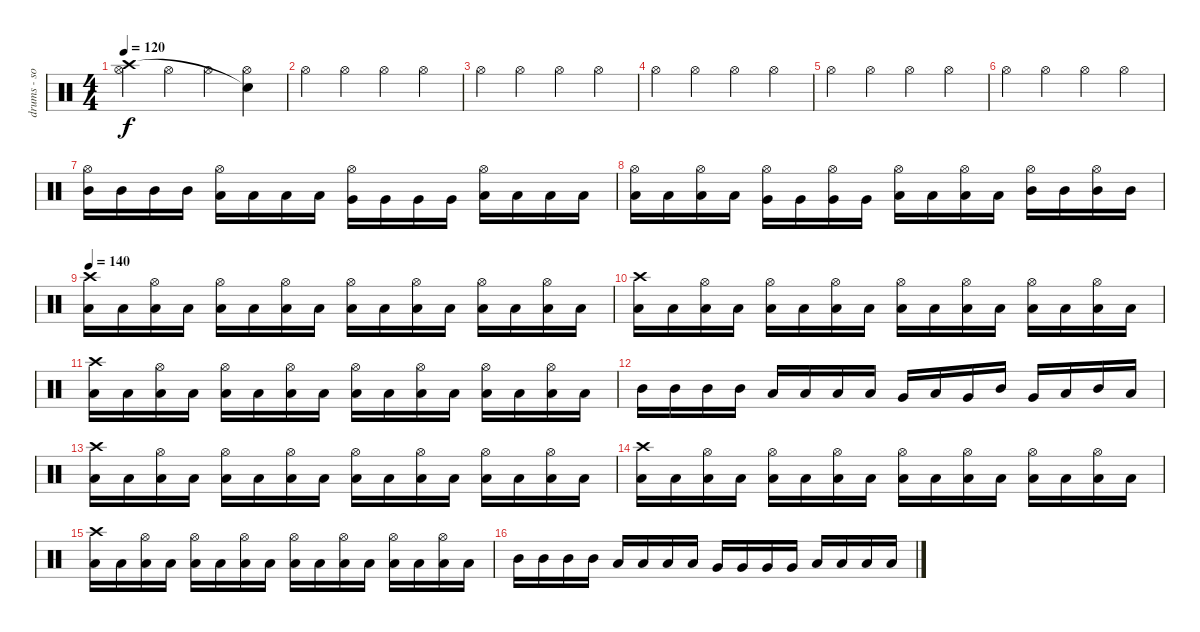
\track ("drums - someone maybe miki" "drums - so") {instrument percussion}
\staff {score}
\articulation defaults
\ts (4 4)
\tempo 120
\clef neutral
\ks c
("Hi-Hat (open)" "Crash high (hit)").4{dy f} "Hi-Hat (open)".4 "Hi-Hat (open)".4 ("Hi-Hat (open)" "Snare (hit)"{t}).4 |
"Hi-Hat (open)".4 "Hi-Hat (open)".4 "Hi-Hat (open)".4 "Hi-Hat (open)".4 |
"Hi-Hat (open)".4 "Hi-Hat (open)".4 "Hi-Hat (open)".4 "Hi-Hat (open)".4 |
"Hi-Hat (open)".4 "Hi-Hat (open)".4 "Hi-Hat (open)".4 "Hi-Hat (open)".4 |
"Hi-Hat (open)".4 "Hi-Hat (open)".4 "Hi-Hat (open)".4 "Hi-Hat (open)".4 |
"Hi-Hat (open)".4 "Hi-Hat (open)".4 "Hi-Hat (open)".4 "Hi-Hat (open)".4 |
("Mid Tom (hit)" "Hi-Hat (open)").16 "Mid Tom (hit)".16 "Mid Tom (hit)".16 "Mid Tom (hit)".16 ("Low Tom (hit)" "Hi-Hat (open)").16 "Low Tom (hit)".16 "Low Tom (hit)".16 "Low Tom (hit)".16 ("Very Low Tom (hit)" "Hi-Hat (open)").16 "Very Low Tom (hit)".16 "Very Low Tom (hit)".16 "Very Low Tom (hit)".16 ("Low Floor Tom (hit)" "Hi-Hat (open)").16 "Low Floor Tom (hit)".16 "Low Floor Tom (hit)".16 "Low Floor Tom (hit)".16 |
("Low Floor Tom (hit)" "Hi-Hat (open)").16{volume 14} "Low Floor Tom (hit)".16 ("Low Floor Tom (hit)" "Hi-Hat (open)").16 "Low Floor Tom (hit)".16 ("Very Low Tom (hit)" "Hi-Hat (open)").16 "Very Low Tom (hit)".16 ("Very Low Tom (hit)" "Hi-Hat (open)").16 "Very Low Tom (hit)".16 ("Low Tom (hit)" "Hi-Hat (open)").16 "Low Tom (hit)".16 ("Low Tom (hit)" "Hi-Hat (open)").16 "Low Tom (hit)".16 ("Mid Tom (hit)" "Hi-Hat (open)").16 "Mid Tom (hit)".16 ("Mid Tom (hit)" "Hi-Hat (open)").16 "Mid Tom (hit)".16 |
\tempo 140
("Crash high (hit)" "Low Floor Tom (hit)").16 "Low Floor Tom (hit)".16 ("Hi-Hat (open)" "Low Floor Tom (hit)").16 "Low Floor Tom (hit)".16 ("Hi-Hat (open)" "Low Tom (hit)").16 "Low Floor Tom (hit)".16 ("Hi-Hat (open)" "Low Floor Tom (hit)").16 "Low Floor Tom (hit)".16 ("Hi-Hat (open)" "Low Floor Tom (hit)").16 "Low Floor Tom (hit)".16 ("Hi-Hat (open)" "Low Floor Tom (hit)").16 "Low Floor Tom (hit)".16 ("Hi-Hat (open)" "Low Tom (hit)").16 "Low Floor Tom (hit)".16 ("Hi-Hat (open)" "Low Floor Tom (hit)").16 "Low Floor Tom (hit)".16 |
("Crash high (hit)" "Low Floor Tom (hit)").16 "Low Floor Tom (hit)".16 ("Hi-Hat (open)" "Low Floor Tom (hit)").16 "Low Floor Tom (hit)".16 ("Hi-Hat (open)" "Low Tom (hit)").16 "Low Floor Tom (hit)".16 ("Hi-Hat (open)" "Low Floor Tom (hit)").16 "Low Floor Tom (hit)".16 ("Hi-Hat (open)" "Low Floor Tom (hit)").16 "Low Floor Tom (hit)".16 ("Hi-Hat (open)" "Low Floor Tom (hit)").16 "Low Floor Tom (hit)".16 ("Hi-Hat (open)" "Low Tom (hit)").16 "Low Floor Tom (hit)".16 ("Hi-Hat (open)" "Low Floor Tom (hit)").16 "Low Floor Tom (hit)".16 |
("Crash high (hit)" "Low Floor Tom (hit)").16 "Low Floor Tom (hit)".16 ("Hi-Hat (open)" "Low Floor Tom (hit)").16 "Low Floor Tom (hit)".16 ("Hi-Hat (open)" "Low Tom (hit)").16 "Low Floor Tom (hit)".16 ("Hi-Hat (open)" "Low Floor Tom (hit)").16 "Low Floor Tom (hit)".16 ("Hi-Hat (open)" "Low Floor Tom (hit)").16 "Low Floor Tom (hit)".16 ("Hi-Hat (open)" "Low Floor Tom (hit)").16 "Low Floor Tom (hit)".16 ("Hi-Hat (open)" "Low Tom (hit)").16 "Low Floor Tom (hit)".16 ("Hi-Hat (open)" "Low Floor Tom (hit)").16 "Low Floor Tom (hit)".16 |
"Mid Tom (hit)".16 "Mid Tom (hit)".16 "Mid Tom (hit)".16 "Mid Tom (hit)".16 "Low Tom (hit)".16 "Low Tom (hit)".16 "Low Tom (hit)".16 "Low Tom (hit)".16 "Very Low Tom (hit)".16 "Low Tom (hit)".16 "Very Low Tom (hit)".16 "Mid Tom (hit)".16 "Very Low Tom (hit)".16 "Low Tom (hit)".16 "Mid Tom (hit)".16 "Low Tom (hit)".16 |
("Crash high (hit)" "Low Floor Tom (hit)").16 "Low Floor Tom (hit)".16 ("Hi-Hat (open)" "Low Floor Tom (hit)").16 "Low Floor Tom (hit)".16 ("Hi-Hat (open)" "Low Tom (hit)").16 "Low Floor Tom (hit)".16 ("Hi-Hat (open)" "Low Floor Tom (hit)").16 "Low Floor Tom (hit)".16 ("Hi-Hat (open)" "Low Floor Tom (hit)").16 "Low Floor Tom (hit)".16 ("Hi-Hat (open)" "Low Floor Tom (hit)").16 "Low Floor Tom (hit)".16 ("Hi-Hat (open)" "Low Tom (hit)").16 "Low Floor Tom (hit)".16 ("Hi-Hat (open)" "Low Floor Tom (hit)").16 "Low Floor Tom (hit)".16 |
("Crash high (hit)" "Low Floor Tom (hit)").16 "Low Floor Tom (hit)".16 ("Hi-Hat (open)" "Low Floor Tom (hit)").16 "Low Floor Tom (hit)".16 ("Hi-Hat (open)" "Low Tom (hit)").16 "Low Floor Tom (hit)".16 ("Hi-Hat (open)" "Low Floor Tom (hit)").16 "Low Floor Tom (hit)".16 ("Hi-Hat (open)" "Low Floor Tom (hit)").16 "Low Floor Tom (hit)".16 ("Hi-Hat (open)" "Low Floor Tom (hit)").16 "Low Floor Tom (hit)".16 ("Hi-Hat (open)" "Low Tom (hit)").16 "Low Floor Tom (hit)".16 ("Hi-Hat (open)" "Low Floor Tom (hit)").16 "Low Floor Tom (hit)".16 |
("Crash high (hit)" "Low Floor Tom (hit)").16 "Low Floor Tom (hit)".16 ("Hi-Hat (open)" "Low Floor Tom (hit)").16 "Low Floor Tom (hit)".16 ("Hi-Hat (open)" "Low Tom (hit)").16 "Low Floor Tom (hit)".16 ("Hi-Hat (open)" "Low Floor Tom (hit)").16 "Low Floor Tom (hit)".16 ("Hi-Hat (open)" "Low Floor Tom (hit)").16 "Low Floor Tom (hit)".16 ("Hi-Hat (open)" "Low Floor Tom (hit)").16 "Low Floor Tom (hit)".16 ("Hi-Hat (open)" "Low Tom (hit)").16 "Low Floor Tom (hit)".16 ("Hi-Hat (open)" "Low Floor Tom (hit)").16 "Low Floor Tom (hit)".16 |
"Mid Tom (hit)".16 "Mid Tom (hit)".16 "Mid Tom (hit)".16 "Mid Tom (hit)".16 "Low Tom (hit)".16 "Low Tom (hit)".16 "Low Tom (hit)".16 "Low Tom (hit)".16 "Very Low Tom (hit)".16 "Very Low Tom (hit)".16 "Very Low Tom (hit)".16 "Very Low Tom (hit)".16 "Low Floor Tom (hit)".16 "Low Floor Tom (hit)".16 "Low Floor Tom (hit)".16 "Low Floor Tom (hit)".16
